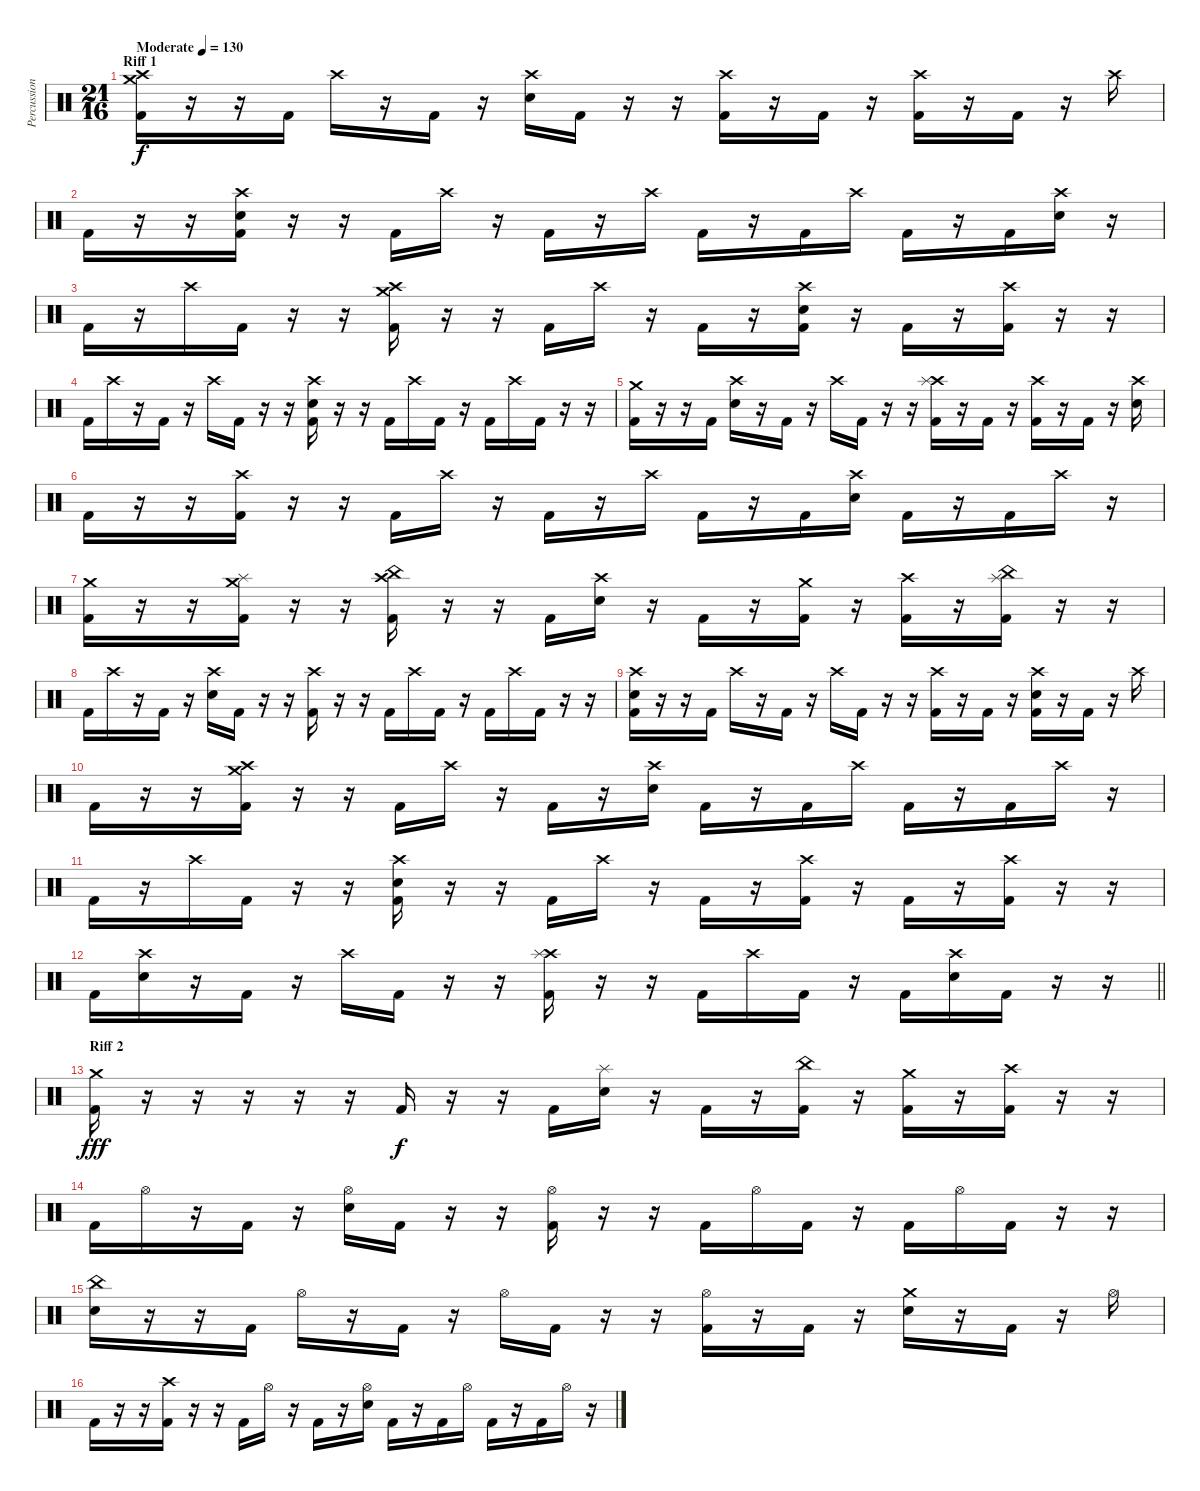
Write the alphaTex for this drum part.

\track ("Percussions" "Percussion") {instrument percussion}
\staff {score}
\articulation defaults
\ts (21 16)
\section ("" "Riff 1")
\tempo (130 "Moderate")
\clef neutral
\ks c
("Crash high (hit)" "Crash medium (hit)" "Kick (hit) 2").16{dy f} r.16 r.16 "Kick (hit) 2".16 "Crash high (hit)".16 r.16 "Kick (hit) 2".16 r.16 ("Crash high (hit)" "Electric Snare (hit)").16 "Kick (hit) 2".16 r.16 r.16 ("Crash high (hit)" "Kick (hit) 2").16 r.16 "Kick (hit) 2".16 r.16 ("Crash high (hit)" "Kick (hit) 2").16 r.16 "Kick (hit) 2".16 r.16 "Crash high (hit)".16 |
"Kick (hit) 2".16 r.16 r.16 ("Crash high (hit)" "Electric Snare (hit)" "Kick (hit) 2").16 r.16 r.16 "Kick (hit) 2".16 "Crash high (hit)".16 r.16 "Kick (hit) 2".16 r.16 "Crash high (hit)".16 "Kick (hit) 2".16 r.16 "Kick (hit) 2".16 "Crash high (hit)".16 "Kick (hit) 2".16 r.16 "Kick (hit) 2".16 ("Crash high (hit)" "Electric Snare (hit)").16 r.16 |
"Kick (hit) 2".16 r.16 "Crash high (hit)".16 "Kick (hit) 2".16 r.16 r.16 ("Crash high (hit)" "Crash medium (hit)" "Kick (hit) 2").16 r.16 r.16 "Kick (hit) 2".16 "Crash high (hit)".16 r.16 "Kick (hit) 2".16 r.16 ("Crash high (hit)" "Electric Snare (hit)" "Kick (hit) 2").16 r.16 "Kick (hit) 2".16 r.16 ("Crash high (hit)" "Kick (hit) 2").16 r.16 r.16 |
"Kick (hit) 2".16 "Crash high (hit)".16 r.16 "Kick (hit) 2".16 r.16 "Crash high (hit)".16 "Kick (hit) 2".16 r.16 r.16 ("Crash high (hit)" "Electric Snare (hit)" "Kick (hit) 2").16 r.16 r.16 "Kick (hit) 2".16 "Crash high (hit)".16 "Kick (hit) 2".16 r.16 "Kick (hit) 2".16 "Crash high (hit)".16 "Kick (hit) 2".16 r.16 r.16 |
("Crash medium (hit)" "Kick (hit) 2").16 r.16 r.16 "Kick (hit) 2".16 ("Crash high (hit)" "Electric Snare (hit)").16 r.16 "Kick (hit) 2".16 r.16 "Crash high (hit)".16 "Kick (hit) 2".16 r.16 r.16 ("Crash high (hit)" "Splash (hit)" "Kick (hit) 2").16 r.16 "Kick (hit) 2".16 r.16 ("Crash high (hit)" "Kick (hit) 2").16 r.16 "Kick (hit) 2".16 r.16 ("Crash high (hit)" "Electric Snare (hit)").16 |
"Kick (hit) 2".16 r.16 r.16 ("Crash high (hit)" "Kick (hit) 2").16 r.16 r.16 "Kick (hit) 2".16 "Crash high (hit)".16 r.16 "Kick (hit) 2".16 r.16 "Crash high (hit)".16 "Kick (hit) 2".16 r.16 "Kick (hit) 2".16 ("Crash high (hit)" "Electric Snare (hit)").16 "Kick (hit) 2".16 r.16 "Kick (hit) 2".16 "Crash high (hit)".16 r.16 |
("Crash medium (hit)" "Kick (hit) 2").16 r.16 r.16 ("Splash (hit)" "Crash medium (hit)" "Kick (hit) 2").16 r.16 r.16 ("Crash high (hit)" "China (hit)" "Kick (hit) 2").16 r.16 r.16 "Kick (hit) 2".16 ("Crash high (hit)" "Electric Snare (hit)").16 r.16 "Kick (hit) 2".16 r.16 ("Crash medium (hit)" "Kick (hit) 2").16 r.16 ("Crash high (hit)" "Kick (hit) 2").16 r.16 ("Splash (hit)" "China (hit)" "Kick (hit) 2").16 r.16 r.16 |
"Kick (hit) 2".16 "Crash high (hit)".16 r.16 "Kick (hit) 2".16 r.16 ("Crash high (hit)" "Electric Snare (hit)").16 "Kick (hit) 2".16 r.16 r.16 ("Crash high (hit)" "Kick (hit) 2").16 r.16 r.16 "Kick (hit) 2".16 "Crash high (hit)".16 "Kick (hit) 2".16 r.16 "Kick (hit) 2".16 "Crash high (hit)".16 "Kick (hit) 2".16 r.16 r.16 |
("Crash high (hit)" "Electric Snare (hit)" "Kick (hit) 2").16 r.16 r.16 "Kick (hit) 2".16 "Crash high (hit)".16 r.16 "Kick (hit) 2".16 r.16 "Crash high (hit)".16 "Kick (hit) 2".16 r.16 r.16 ("Crash high (hit)" "Kick (hit) 2").16 r.16 "Kick (hit) 2".16 r.16 ("Crash high (hit)" "Electric Snare (hit)" "Kick (hit) 2").16 r.16 "Kick (hit) 2".16 r.16 "Crash high (hit)".16 |
"Kick (hit) 2".16 r.16 r.16 ("Crash high (hit)" "Crash medium (hit)" "Kick (hit) 2").16 r.16 r.16 "Kick (hit) 2".16 "Crash high (hit)".16 r.16 "Kick (hit) 2".16 r.16 ("Crash high (hit)" "Electric Snare (hit)").16 "Kick (hit) 2".16 r.16 "Kick (hit) 2".16 "Crash high (hit)".16 "Kick (hit) 2".16 r.16 "Kick (hit) 2".16 "Crash high (hit)".16 r.16 |
"Kick (hit) 2".16 r.16 "Crash high (hit)".16 "Kick (hit) 2".16 r.16 r.16 ("Crash high (hit)" "Electric Snare (hit)" "Kick (hit) 2").16 r.16 r.16 "Kick (hit) 2".16 "Crash high (hit)".16 r.16 "Kick (hit) 2".16 r.16 ("Crash high (hit)" "Kick (hit) 2").16 r.16 "Kick (hit) 2".16 r.16 ("Crash high (hit)" "Kick (hit) 2").16 r.16 r.16 |
\barLineRight lightlight "Kick (hit) 2".16
("Crash high (hit)" "Electric Snare (hit)").16 r.16 "Kick (hit) 2".16 r.16 "Crash high (hit)".16 "Kick (hit) 2".16 r.16 r.16 ("Crash high (hit)" "Splash (hit)" "Kick (hit) 2").16 r.16 r.16 "Kick (hit) 2".16 "Crash high (hit)".16 "Kick (hit) 2".16 r.16 "Kick (hit) 2".16 ("Crash high (hit)" "Electric Snare (hit)").16 "Kick (hit) 2".16 r.16 r.16 |
\section ("" "Riff 2")
("Crash medium (hit)" "Kick (hit) 2").16{dy fff} r.16 r.16 r.16 r.16 r.16 "Kick (hit) 2".16{dy f} r.16 r.16 "Kick (hit) 2".16 ("Splash (hit)" "Electric Snare (hit)").16 r.16 "Kick (hit) 2".16 r.16 ("China (hit)" "Kick (hit) 2").16 r.16 ("Crash medium (hit)" "Kick (hit) 2").16 r.16 ("Crash high (hit)" "Kick (hit) 2").16 r.16 r.16 |
"Kick (hit) 2".16 "Hi-Hat (open)".16 r.16 "Kick (hit) 2".16 r.16 ("Hi-Hat (open)" "Electric Snare (hit)").16 "Kick (hit) 2".16 r.16 r.16 ("Hi-Hat (open)" "Kick (hit) 2").16 r.16 r.16 "Kick (hit) 2".16 "Hi-Hat (open)".16 "Kick (hit) 2".16 r.16 "Kick (hit) 2".16 "Hi-Hat (open)".16 "Kick (hit) 2".16 r.16 r.16 |
("China (hit)" "Electric Snare (hit)").16 r.16 r.16 "Kick (hit) 2".16 "Hi-Hat (open)".16 r.16 "Kick (hit) 2".16 r.16 "Hi-Hat (open)".16 "Kick (hit) 2".16 r.16 r.16 ("Hi-Hat (open)" "Kick (hit) 2").16 r.16 "Kick (hit) 2".16 r.16 ("Crash medium (hit)" "Electric Snare (hit)").16 r.16 "Kick (hit) 2".16 r.16 "Hi-Hat (open)".16 |
"Kick (hit) 2".16 r.16 r.16 ("Crash high (hit)" "Kick (hit) 2").16 r.16 r.16 "Kick (hit) 2".16 "Hi-Hat (open)".16 r.16 "Kick (hit) 2".16 r.16 ("Hi-Hat (open)" "Electric Snare (hit)").16 "Kick (hit) 2".16 r.16 "Kick (hit) 2".16 "Hi-Hat (open)".16 "Kick (hit) 2".16 r.16 "Kick (hit) 2".16 "Hi-Hat (open)".16 r.16
